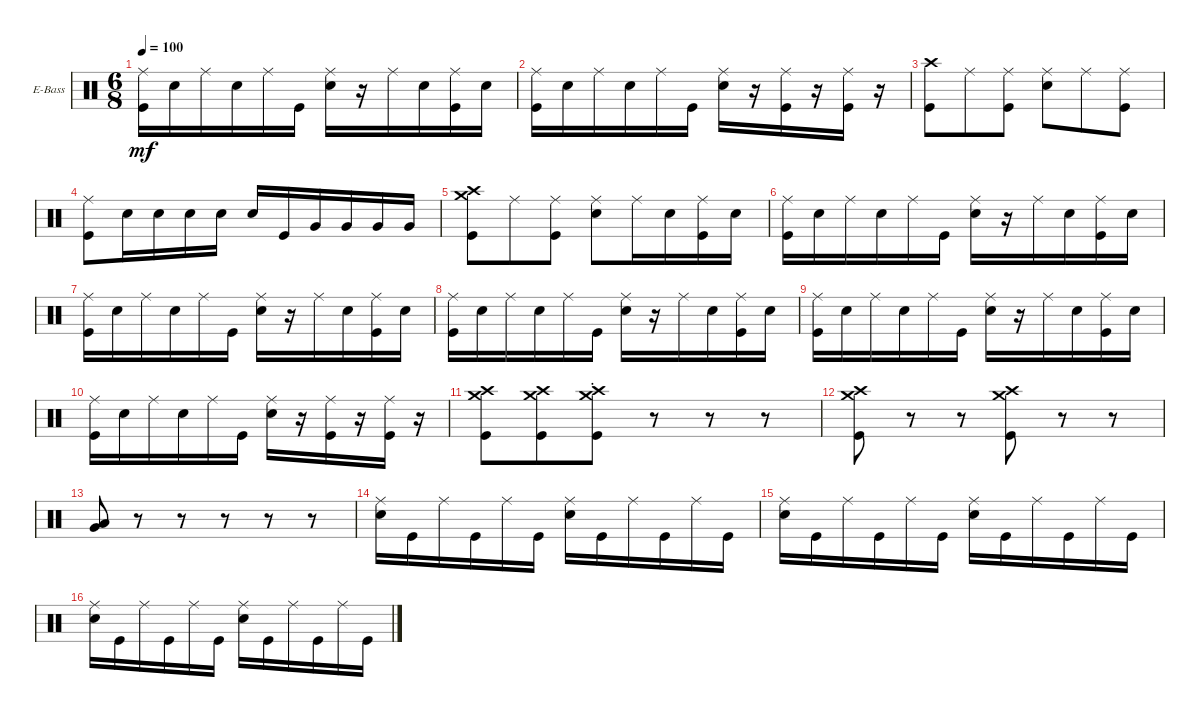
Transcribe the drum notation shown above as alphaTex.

\defaultSystemsLayout 4
\bracketExtendMode groupsimilarinstruments
\firstSystemTrackNameOrientation horizontal
\otherSystemsTrackNameOrientation horizontal
\track ("Drums" "E-Bass") {instrument percussion}
\staff {score}
\articulation defaults
\ts (6 8)
\tempo 100
\clef neutral
\ks c
("Kick (hit)" "Ride (middle)").16{dy mf} "Snare (hit) 2".16 "Ride (middle)".16 "Snare (hit) 2".16 "Ride (middle)".16 "Kick (hit)".16 ("Ride (middle)" "Snare (hit) 2").16 r.16 "Ride (middle)".16 "Snare (hit) 2".16 ("Ride (middle)" "Kick (hit)").16 "Snare (hit) 2".16 |
("Ride (middle)" "Kick (hit)").16 "Snare (hit) 2".16 "Ride (middle)".16 "Snare (hit) 2".16 "Ride (middle)".16 "Kick (hit)".16 ("Ride (middle)" "Snare (hit) 2").16 r.16 ("Ride (middle)" "Kick (hit)").16 r.16 ("Ride (middle)" "Kick (hit)").16 r.16 |
("Kick (hit)" "Crash high (hit)").8 "Ride (middle)".8 ("Ride (middle)" "Kick (hit)").8 ("Ride (middle)" "Snare (hit) 2").8 "Ride (middle)".8 ("Ride (middle)" "Kick (hit)").8 |
("Kick (hit)" "Ride (middle)").8 "Snare (hit) 2".16 "Snare (hit) 2".16 "Snare (hit) 2".16 "Snare (hit) 2".16 "Snare (hit) 2".16 "Kick (hit)".16 "Very Low Tom (hit)".16 "Very Low Tom (hit)".16 "Very Low Tom (hit)".16 "Very Low Tom (hit)".16 |
("Kick (hit)" "Crash medium (hit)" "Crash high (hit)").8 "Ride (middle)".8 ("Ride (middle)" "Kick (hit)").8 ("Ride (middle)" "Snare (hit) 2").8 "Ride (middle)".16 "Snare (hit) 2".16 ("Ride (middle)" "Kick (hit)").16 "Snare (hit) 2".16 |
("Ride (middle)" "Kick (hit)").16 "Snare (hit) 2".16 "Ride (middle)".16 "Snare (hit) 2".16 "Ride (middle)".16 "Kick (hit)".16 ("Snare (hit) 2" "Ride (middle)").16 r.16 "Ride (middle)".16 "Snare (hit) 2".16 ("Ride (middle)" "Kick (hit)").16 "Snare (hit) 2".16 |
("Ride (middle)" "Kick (hit)").16 "Snare (hit) 2".16 "Ride (middle)".16 "Snare (hit) 2".16 "Ride (middle)".16 "Kick (hit)".16 ("Ride (middle)" "Snare (hit) 2").16 r.16 "Ride (middle)".16 "Snare (hit) 2".16 ("Ride (middle)" "Kick (hit)").16 "Snare (hit) 2".16 |
("Ride (middle)" "Kick (hit)").16 "Snare (hit) 2".16 "Ride (middle)".16 "Snare (hit) 2".16 "Ride (middle)".16 "Kick (hit)".16 ("Ride (middle)" "Snare (hit) 2").16 r.16 "Ride (middle)".16 "Snare (hit) 2".16 ("Ride (middle)" "Kick (hit)").16 "Snare (hit) 2".16 |
("Kick (hit)" "Ride (middle)").16 "Snare (hit) 2".16 "Ride (middle)".16 "Snare (hit) 2".16 "Ride (middle)".16 "Kick (hit)".16 ("Ride (middle)" "Snare (hit) 2").16 r.16 "Ride (middle)".16 "Snare (hit) 2".16 ("Ride (middle)" "Kick (hit)").16 "Snare (hit) 2".16 |
("Ride (middle)" "Kick (hit)").16 "Snare (hit) 2".16 "Ride (middle)".16 "Snare (hit) 2".16 "Ride (middle)".16 "Kick (hit)".16 ("Ride (middle)" "Snare (hit) 2").16 r.16 ("Ride (middle)" "Kick (hit)").16 r.16 ("Ride (middle)" "Kick (hit)").16 r.16 |
("Kick (hit)" "Crash medium (hit)" "Crash high (hit)").8 ("Kick (hit)" "Crash high (hit)" "Crash medium (hit)").8 ("Kick (hit)" "Crash medium (hit)"{st} "Crash high (hit)"{st}).8 r.8 r.8 r.8 |
("Kick (hit)" "Crash medium (hit)" "Crash high (hit)").8 r.8 r.8 ("Kick (hit)" "Crash high (hit)" "Crash medium (hit)").8 r.8 r.8 |
("Very Low Tom (hit)" "Low Tom (hit)").8 r.8 r.8 r.8 r.8 r.8 |
("Snare (hit) 2" "Ride (middle)").16 "Kick (hit)".16 "Ride (middle)".16 "Kick (hit)".16 "Ride (middle)".16 "Kick (hit)".16 ("Snare (hit) 2" "Ride (middle)").16 "Kick (hit)".16 "Ride (middle)".16 "Kick (hit)".16 "Ride (middle)".16 "Kick (hit)".16 |
("Snare (hit) 2" "Ride (middle)").16 "Kick (hit)".16 "Ride (middle)".16 "Kick (hit)".16 "Ride (middle)".16 "Kick (hit)".16 ("Snare (hit) 2" "Ride (middle)").16 "Kick (hit)".16 "Ride (middle)".16 "Kick (hit)".16 "Ride (middle)".16 "Kick (hit)".16 |
("Snare (hit) 2" "Ride (middle)").16 "Kick (hit)".16 "Ride (middle)".16 "Kick (hit)".16 "Ride (middle)".16 "Kick (hit)".16 ("Snare (hit) 2" "Ride (middle)").16 "Kick (hit)".16 "Ride (middle)".16 "Kick (hit)".16 "Ride (middle)".16 "Kick (hit)".16
